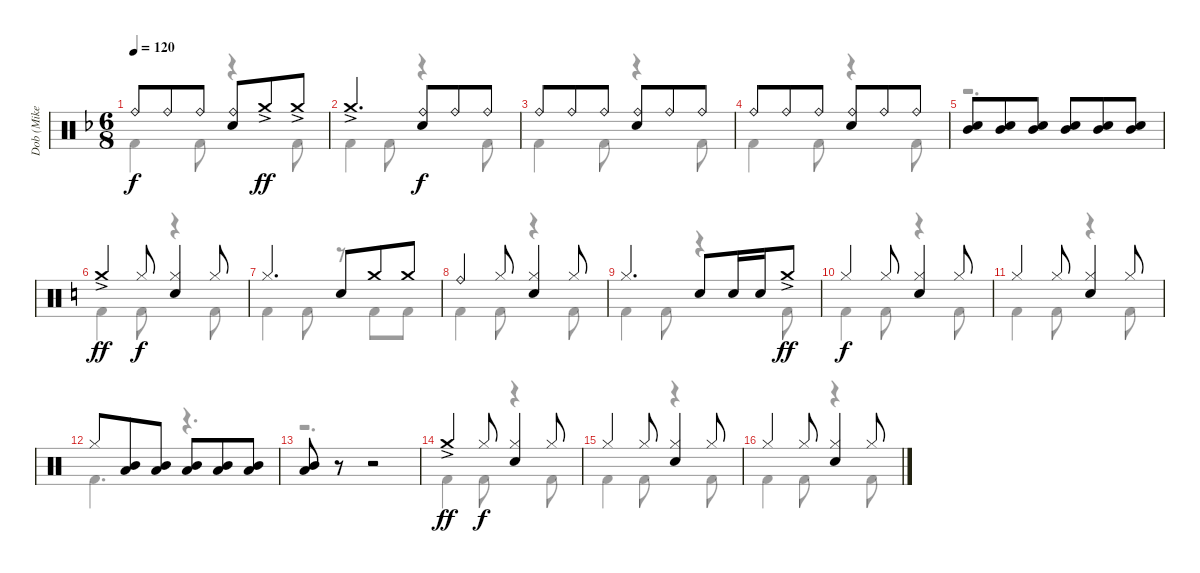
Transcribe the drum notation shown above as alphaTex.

\track ("Dob (Mike Terrana)" "Dob (Mike ") {instrument percussion}
\staff {score}
\articulation defaults
\voice
\ts (6 8)
\tempo 120
\clef neutral
\ks f "Ride (bell)".8{dy f} "Ride (bell)".8 "Ride (bell)".8
("Ride (bell)" "Electric Snare (hit)").8 "Crash medium (hit)"{ac}.8{dy ff} "Crash medium (hit)"{ac}.8 |
"Crash medium (hit)"{ac}.4{d} ("Ride (bell)" "Electric Snare (hit)").8{dy f} "Ride (bell)".8 "Ride (bell)".8 |
"Ride (bell)".8 "Ride (bell)".8 "Ride (bell)".8 ("Ride (bell)" "Electric Snare (hit)").8 "Ride (bell)".8 "Ride (bell)".8 |
"Ride (bell)".8 "Ride (bell)".8 "Ride (bell)".8 ("Ride (bell)" "Electric Snare (hit)").8 "Ride (bell)".8 "Ride (bell)".8 |
("Mid Tom (hit)" "Electric Snare (hit)").8 ("Mid Tom (hit)" "Electric Snare (hit)").8 ("Mid Tom (hit)" "Electric Snare (hit)").8 ("Mid Tom (hit)" "Electric Snare (hit)").8 ("Mid Tom (hit)" "Electric Snare (hit)").8 ("Mid Tom (hit)" "Electric Snare (hit)").8 |
\ks c "Crash medium (hit)"{ac}.4{dy ff} "Hi-Hat (closed)".8{dy f}
("Hi-Hat (closed)" "Electric Snare (hit)").4 "Hi-Hat (closed)".8 |
"Hi-Hat (closed)".4{d} "Electric Snare (hit)".8 "Crash medium (hit)".8 "Crash medium (hit)".8 |
"Ride (bell)".4 "Hi-Hat (closed)".8 ("Hi-Hat (closed)" "Electric Snare (hit)").4 "Hi-Hat (closed)".8 |
"Hi-Hat (closed)".4{d} "Electric Snare (hit)".8 "Electric Snare (hit)".16 "Electric Snare (hit)".16 "Crash medium (hit)"{ac}.8{dy ff} |
"Hi-Hat (closed)".4{dy f} "Hi-Hat (closed)".8 ("Hi-Hat (closed)" "Electric Snare (hit)").4 "Hi-Hat (closed)".8 |
"Hi-Hat (closed)".4 "Hi-Hat (closed)".8 ("Hi-Hat (closed)" "Electric Snare (hit)").4 "Hi-Hat (closed)".8 |
"Hi-Hat (closed)".8 ("Mid Tom (hit)" "Low Tom (hit)").8 ("Mid Tom (hit)" "Low Tom (hit)").8 ("Mid Tom (hit)" "Low Tom (hit)").8 ("Mid Tom (hit)" "Low Tom (hit)").8 ("Mid Tom (hit)" "Low Tom (hit)").8 |
("Mid Tom (hit)" "Low Tom (hit)").8 r.8 r.2 |
"Crash medium (hit)"{ac}.4{dy ff} "Hi-Hat (closed)".8{dy f} ("Hi-Hat (closed)" "Electric Snare (hit)").4 "Hi-Hat (closed)".8 |
"Hi-Hat (closed)".4 "Hi-Hat (closed)".8 ("Hi-Hat (closed)" "Electric Snare (hit)").4 "Hi-Hat (closed)".8 |
"Hi-Hat (closed)".4 "Hi-Hat (closed)".8 ("Hi-Hat (closed)" "Electric Snare (hit)").4 "Hi-Hat (closed)".8
\voice
\clef neutral
\ottava regular
\simile none
\ks f "Kick (hit) 2".4{dy f} "Kick (hit) 2".8
r.4 "Kick (hit) 2".8 |
"Kick (hit) 2".4 "Kick (hit) 2".8 r.4 "Kick (hit) 2".8 |
"Kick (hit) 2".4 "Kick (hit) 2".8 r.4 "Kick (hit) 2".8 |
"Kick (hit) 2".4 "Kick (hit) 2".8 r.4 "Kick (hit) 2".8 |
r.2{d} |
\ks c "Kick (hit) 2".4 "Kick (hit) 2".8
r.4 "Kick (hit) 2".8 |
"Kick (hit) 2".4 "Kick (hit) 2".8 r.8 "Kick (hit) 2".8 "Kick (hit) 2".8 |
"Kick (hit) 2".4 "Kick (hit) 2".8 r.4 "Kick (hit) 2".8 |
"Kick (hit) 2".4 "Kick (hit) 2".8 r.4 "Kick (hit) 2".8 |
"Kick (hit) 2".4 "Kick (hit) 2".8 r.4 "Kick (hit) 2".8 |
"Kick (hit) 2".4 "Kick (hit) 2".8 r.4 "Kick (hit) 2".8 |
"Kick (hit) 2".4{d} r.4{d} |
r.2{d} |
"Kick (hit) 2".4 "Kick (hit) 2".8 r.4 "Kick (hit) 2".8 |
"Kick (hit) 2".4 "Kick (hit) 2".8 r.4 "Kick (hit) 2".8 |
"Kick (hit) 2".4 "Kick (hit) 2".8 r.4 "Kick (hit) 2".8
